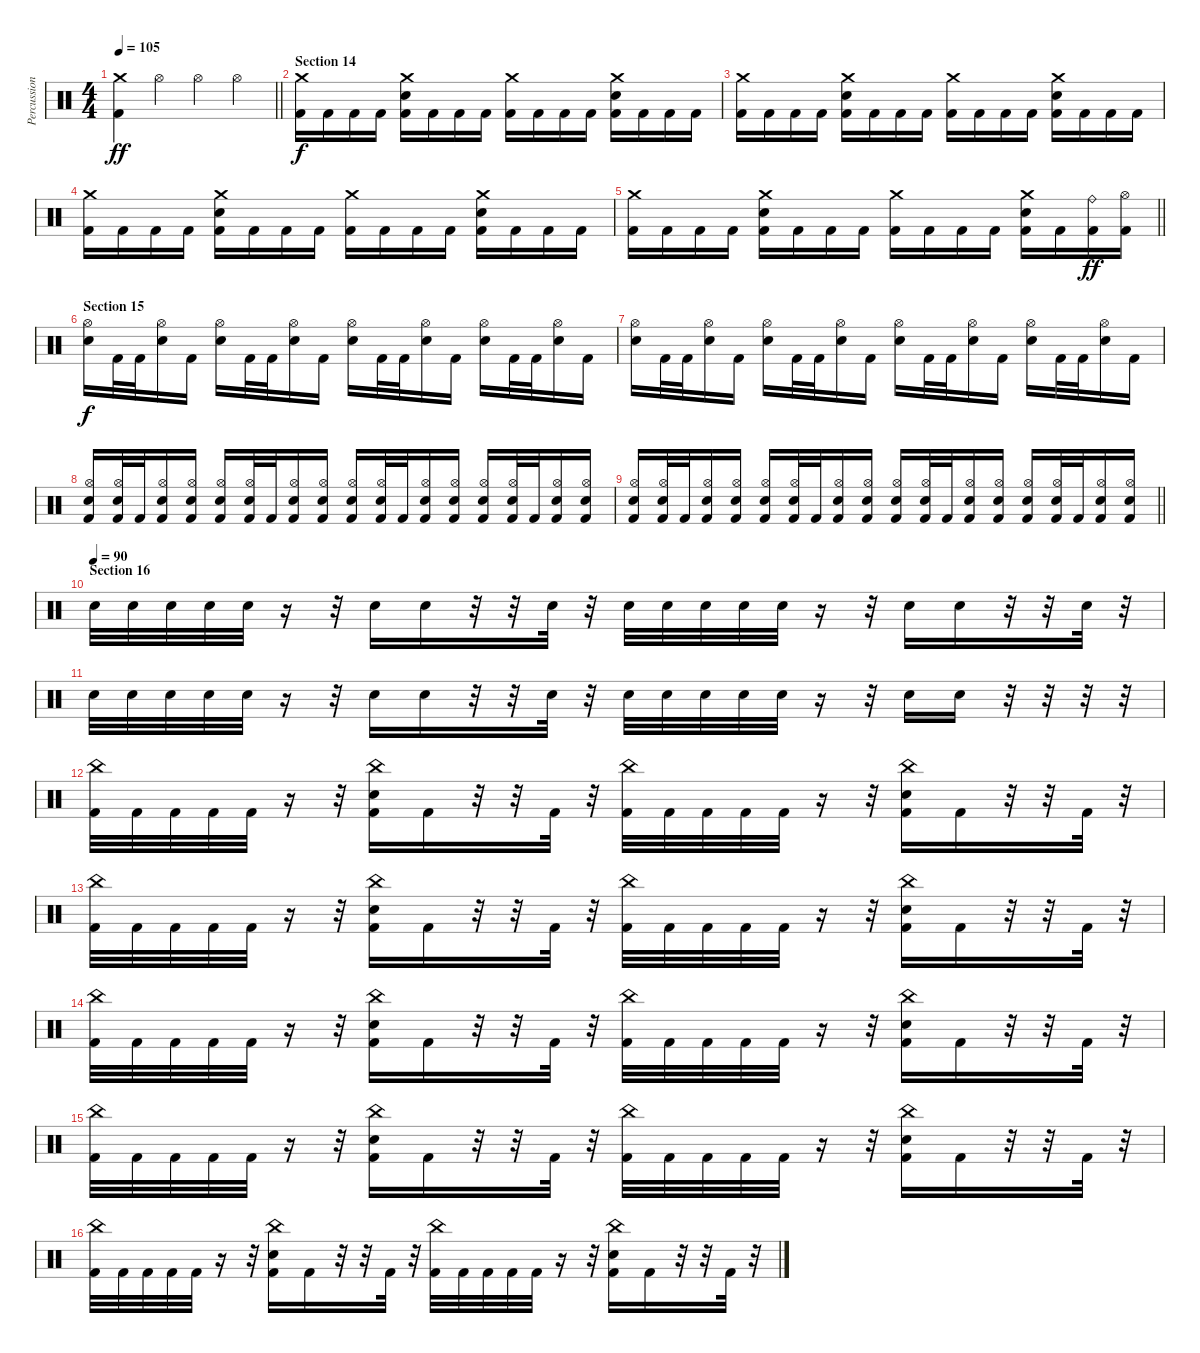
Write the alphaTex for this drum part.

\track ("Percussion" "Percussion") {instrument percussion}
\staff {score}
\articulation defaults
\ts (4 4)
\tempo 105
\clef neutral
\barLineRight lightlight
\ks c
("Crash medium (hit)" "Kick (hit) 2").4{dy ff} "Hi-Hat (open)".4 "Hi-Hat (open)".4 "Hi-Hat (open)".4 |
\section ("" "Section 14")
("Crash medium (hit)" "Kick (hit) 2").16{dy f} "Kick (hit) 2".16 "Kick (hit) 2".16 "Kick (hit) 2".16 ("Crash medium (hit)" "Electric Snare (hit)" "Kick (hit) 2").16 "Kick (hit) 2".16 "Kick (hit) 2".16 "Kick (hit) 2".16 ("Crash medium (hit)" "Kick (hit) 2").16 "Kick (hit) 2".16 "Kick (hit) 2".16 "Kick (hit) 2".16 ("Crash medium (hit)" "Electric Snare (hit)" "Kick (hit) 2").16 "Kick (hit) 2".16 "Kick (hit) 2".16 "Kick (hit) 2".16 |
("Crash medium (hit)" "Kick (hit) 2").16 "Kick (hit) 2".16 "Kick (hit) 2".16 "Kick (hit) 2".16 ("Crash medium (hit)" "Electric Snare (hit)" "Kick (hit) 2").16 "Kick (hit) 2".16 "Kick (hit) 2".16 "Kick (hit) 2".16 ("Crash medium (hit)" "Kick (hit) 2").16 "Kick (hit) 2".16 "Kick (hit) 2".16 "Kick (hit) 2".16 ("Crash medium (hit)" "Electric Snare (hit)" "Kick (hit) 2").16 "Kick (hit) 2".16 "Kick (hit) 2".16 "Kick (hit) 2".16 |
("Crash medium (hit)" "Kick (hit) 2").16 "Kick (hit) 2".16 "Kick (hit) 2".16 "Kick (hit) 2".16 ("Crash medium (hit)" "Electric Snare (hit)" "Kick (hit) 2").16 "Kick (hit) 2".16 "Kick (hit) 2".16 "Kick (hit) 2".16 ("Crash medium (hit)" "Kick (hit) 2").16 "Kick (hit) 2".16 "Kick (hit) 2".16 "Kick (hit) 2".16 ("Crash medium (hit)" "Electric Snare (hit)" "Kick (hit) 2").16 "Kick (hit) 2".16 "Kick (hit) 2".16 "Kick (hit) 2".16 |
\barLineRight lightlight
("Crash medium (hit)" "Kick (hit) 2").16 "Kick (hit) 2".16 "Kick (hit) 2".16 "Kick (hit) 2".16 ("Crash medium (hit)" "Electric Snare (hit)" "Kick (hit) 2").16 "Kick (hit) 2".16 "Kick (hit) 2".16 "Kick (hit) 2".16 ("Crash medium (hit)" "Kick (hit) 2").16 "Kick (hit) 2".16 "Kick (hit) 2".16 "Kick (hit) 2".16 ("Crash medium (hit)" "Electric Snare (hit)" "Kick (hit) 2").16 "Kick (hit) 2".16 ("Ride (bell)" "Kick (hit) 2").16{dy ff} ("Hi-Hat (open)" "Kick (hit) 2").16 |
\section ("" "Section 15")
("Hi-Hat (open)" "Electric Snare (hit)").16{dy f} "Kick (hit) 2".32 "Kick (hit) 2".32 ("Hi-Hat (open)" "Electric Snare (hit)").16 "Kick (hit) 2".16 ("Hi-Hat (open)" "Electric Snare (hit)").16 "Kick (hit) 2".32 "Kick (hit) 2".32 ("Hi-Hat (open)" "Electric Snare (hit)").16 "Kick (hit) 2".16 ("Hi-Hat (open)" "Electric Snare (hit)").16 "Kick (hit) 2".32 "Kick (hit) 2".32 ("Hi-Hat (open)" "Electric Snare (hit)").16 "Kick (hit) 2".16 ("Hi-Hat (open)" "Electric Snare (hit)").16 "Kick (hit) 2".32 "Kick (hit) 2".32 ("Hi-Hat (open)" "Electric Snare (hit)").16 "Kick (hit) 2".16 |
("Hi-Hat (open)" "Electric Snare (hit)").16 "Kick (hit) 2".32 "Kick (hit) 2".32 ("Hi-Hat (open)" "Electric Snare (hit)").16 "Kick (hit) 2".16 ("Hi-Hat (open)" "Electric Snare (hit)").16 "Kick (hit) 2".32 "Kick (hit) 2".32 ("Hi-Hat (open)" "Electric Snare (hit)").16 "Kick (hit) 2".16 ("Hi-Hat (open)" "Electric Snare (hit)").16 "Kick (hit) 2".32 "Kick (hit) 2".32 ("Hi-Hat (open)" "Electric Snare (hit)").16 "Kick (hit) 2".16 ("Hi-Hat (open)" "Electric Snare (hit)").16 "Kick (hit) 2".32 "Kick (hit) 2".32 ("Hi-Hat (open)" "Electric Snare (hit)").16 "Kick (hit) 2".16 |
("Hi-Hat (open)" "Electric Snare (hit)" "Kick (hit) 2").16 ("Hi-Hat (open)" "Electric Snare (hit)" "Kick (hit) 2").32 "Kick (hit) 2".32 ("Hi-Hat (open)" "Electric Snare (hit)" "Kick (hit) 2").16 ("Hi-Hat (open)" "Electric Snare (hit)" "Kick (hit) 2").16 ("Hi-Hat (open)" "Electric Snare (hit)" "Kick (hit) 2").16 ("Hi-Hat (open)" "Electric Snare (hit)" "Kick (hit) 2").32 "Kick (hit) 2".32 ("Hi-Hat (open)" "Electric Snare (hit)" "Kick (hit) 2").16 ("Hi-Hat (open)" "Electric Snare (hit)" "Kick (hit) 2").16 ("Hi-Hat (open)" "Electric Snare (hit)" "Kick (hit) 2").16 ("Hi-Hat (open)" "Electric Snare (hit)" "Kick (hit) 2").32 "Kick (hit) 2".32 ("Hi-Hat (open)" "Electric Snare (hit)" "Kick (hit) 2").16 ("Hi-Hat (open)" "Electric Snare (hit)" "Kick (hit) 2").16 ("Hi-Hat (open)" "Electric Snare (hit)" "Kick (hit) 2").16 ("Hi-Hat (open)" "Electric Snare (hit)" "Kick (hit) 2").32 "Kick (hit) 2".32 ("Hi-Hat (open)" "Electric Snare (hit)" "Kick (hit) 2").16 ("Hi-Hat (open)" "Electric Snare (hit)" "Kick (hit) 2").16 |
\barLineRight lightlight
("Hi-Hat (open)" "Electric Snare (hit)" "Kick (hit) 2").16 ("Hi-Hat (open)" "Electric Snare (hit)" "Kick (hit) 2").32 "Kick (hit) 2".32 ("Hi-Hat (open)" "Electric Snare (hit)" "Kick (hit) 2").16 ("Hi-Hat (open)" "Electric Snare (hit)" "Kick (hit) 2").16 ("Hi-Hat (open)" "Electric Snare (hit)" "Kick (hit) 2").16 ("Hi-Hat (open)" "Electric Snare (hit)" "Kick (hit) 2").32 "Kick (hit) 2".32 ("Hi-Hat (open)" "Electric Snare (hit)" "Kick (hit) 2").16 ("Hi-Hat (open)" "Electric Snare (hit)" "Kick (hit) 2").16 ("Hi-Hat (open)" "Electric Snare (hit)" "Kick (hit) 2").16 ("Hi-Hat (open)" "Electric Snare (hit)" "Kick (hit) 2").32 "Kick (hit) 2".32 ("Hi-Hat (open)" "Electric Snare (hit)" "Kick (hit) 2").16 ("Hi-Hat (open)" "Electric Snare (hit)" "Kick (hit) 2").16 ("Hi-Hat (open)" "Electric Snare (hit)" "Kick (hit) 2").16 ("Hi-Hat (open)" "Electric Snare (hit)" "Kick (hit) 2").32 "Kick (hit) 2".32 ("Hi-Hat (open)" "Electric Snare (hit)" "Kick (hit) 2").16 ("Hi-Hat (open)" "Electric Snare (hit)" "Kick (hit) 2").16 |
\section ("" "Section 16")
\tempo (90)
"Electric Snare (hit)".32 "Electric Snare (hit)".32 "Electric Snare (hit)".32 "Electric Snare (hit)".32 "Electric Snare (hit)".32 r.16 r.32 "Electric Snare (hit)".16 "Electric Snare (hit)".16 r.32 r.32 "Electric Snare (hit)".32 r.32 "Electric Snare (hit)".32 "Electric Snare (hit)".32 "Electric Snare (hit)".32 "Electric Snare (hit)".32 "Electric Snare (hit)".32 r.16 r.32 "Electric Snare (hit)".16 "Electric Snare (hit)".16 r.32 r.32 "Electric Snare (hit)".32 r.32 |
"Electric Snare (hit)".32 "Electric Snare (hit)".32 "Electric Snare (hit)".32 "Electric Snare (hit)".32 "Electric Snare (hit)".32 r.16 r.32 "Electric Snare (hit)".16 "Electric Snare (hit)".16 r.32 r.32 "Electric Snare (hit)".32 r.32 "Electric Snare (hit)".32 "Electric Snare (hit)".32 "Electric Snare (hit)".32 "Electric Snare (hit)".32 "Electric Snare (hit)".32 r.16 r.32 "Electric Snare (hit)".16 "Electric Snare (hit)".16 r.32 r.32 r.32 r.32 |
("China (hit)" "Kick (hit) 2").32 "Kick (hit) 2".32 "Kick (hit) 2".32 "Kick (hit) 2".32 "Kick (hit) 2".32 r.16 r.32 ("China (hit)" "Electric Snare (hit)" "Kick (hit) 2").16 "Kick (hit) 2".16 r.32 r.32 "Kick (hit) 2".32 r.32 ("China (hit)" "Kick (hit) 2").32 "Kick (hit) 2".32 "Kick (hit) 2".32 "Kick (hit) 2".32 "Kick (hit) 2".32 r.16 r.32 ("China (hit)" "Electric Snare (hit)" "Kick (hit) 2").16 "Kick (hit) 2".16 r.32 r.32 "Kick (hit) 2".32 r.32 |
("China (hit)" "Kick (hit) 2").32 "Kick (hit) 2".32 "Kick (hit) 2".32 "Kick (hit) 2".32 "Kick (hit) 2".32 r.16 r.32 ("China (hit)" "Electric Snare (hit)" "Kick (hit) 2").16 "Kick (hit) 2".16 r.32 r.32 "Kick (hit) 2".32 r.32 ("China (hit)" "Kick (hit) 2").32 "Kick (hit) 2".32 "Kick (hit) 2".32 "Kick (hit) 2".32 "Kick (hit) 2".32 r.16 r.32 ("China (hit)" "Electric Snare (hit)" "Kick (hit) 2").16 "Kick (hit) 2".16 r.32 r.32 "Kick (hit) 2".32 r.32 |
("China (hit)" "Kick (hit) 2").32 "Kick (hit) 2".32 "Kick (hit) 2".32 "Kick (hit) 2".32 "Kick (hit) 2".32 r.16 r.32 ("China (hit)" "Electric Snare (hit)" "Kick (hit) 2").16 "Kick (hit) 2".16 r.32 r.32 "Kick (hit) 2".32 r.32 ("China (hit)" "Kick (hit) 2").32 "Kick (hit) 2".32 "Kick (hit) 2".32 "Kick (hit) 2".32 "Kick (hit) 2".32 r.16 r.32 ("China (hit)" "Electric Snare (hit)" "Kick (hit) 2").16 "Kick (hit) 2".16 r.32 r.32 "Kick (hit) 2".32 r.32 |
("China (hit)" "Kick (hit) 2").32 "Kick (hit) 2".32 "Kick (hit) 2".32 "Kick (hit) 2".32 "Kick (hit) 2".32 r.16 r.32 ("China (hit)" "Electric Snare (hit)" "Kick (hit) 2").16 "Kick (hit) 2".16 r.32 r.32 "Kick (hit) 2".32 r.32 ("China (hit)" "Kick (hit) 2").32 "Kick (hit) 2".32 "Kick (hit) 2".32 "Kick (hit) 2".32 "Kick (hit) 2".32 r.16 r.32 ("China (hit)" "Electric Snare (hit)" "Kick (hit) 2").16 "Kick (hit) 2".16 r.32 r.32 "Kick (hit) 2".32 r.32 |
("China (hit)" "Kick (hit) 2").32 "Kick (hit) 2".32 "Kick (hit) 2".32 "Kick (hit) 2".32 "Kick (hit) 2".32 r.16 r.32 ("China (hit)" "Electric Snare (hit)" "Kick (hit) 2").16 "Kick (hit) 2".16 r.32 r.32 "Kick (hit) 2".32 r.32 ("China (hit)" "Kick (hit) 2").32 "Kick (hit) 2".32 "Kick (hit) 2".32 "Kick (hit) 2".32 "Kick (hit) 2".32 r.16 r.32 ("China (hit)" "Electric Snare (hit)" "Kick (hit) 2").16 "Kick (hit) 2".16 r.32 r.32 "Kick (hit) 2".32 r.32
